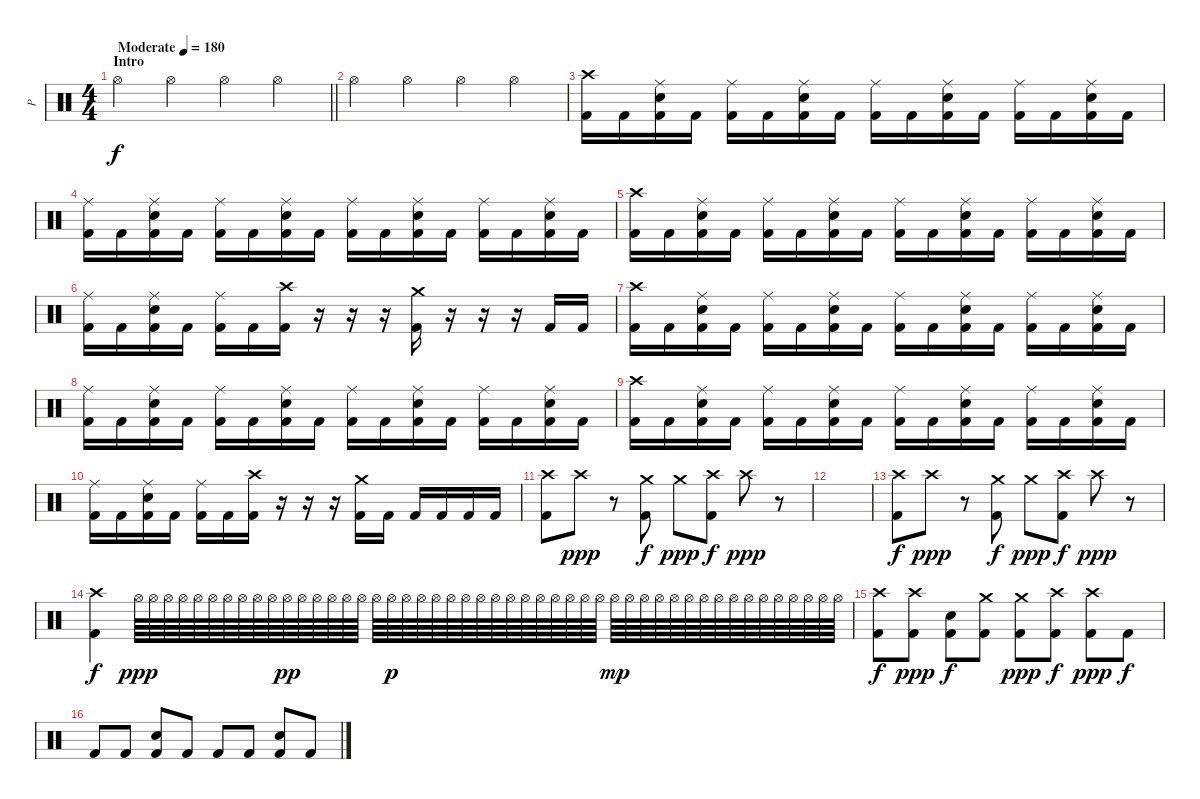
\track ("P" "P") {instrument percussion}
\staff {score}
\articulation defaults
\ts (4 4)
\section ("" "Intro")
\tempo (180 "Moderate")
\clef neutral
\barLineRight lightlight
\ks c "Hi-Hat (open)".4{dy f} "Hi-Hat (open)".4 "Hi-Hat (open)".4 "Hi-Hat (open)".4
|
"Hi-Hat (open)".4 "Hi-Hat (open)".4 "Hi-Hat (open)".4 "Hi-Hat (open)".4 |
("Crash high (hit)" "Kick (hit) 2").16 "Kick (hit) 2".16 ("Ride (middle)" "Electric Snare (hit)" "Kick (hit) 2").16 "Kick (hit) 2".16 ("Ride (middle)" "Kick (hit) 2").16 "Kick (hit) 2".16 ("Ride (middle)" "Electric Snare (hit)" "Kick (hit) 2").16 "Kick (hit) 2".16 ("Ride (middle)" "Kick (hit) 2").16 "Kick (hit) 2".16 ("Ride (middle)" "Electric Snare (hit)" "Kick (hit) 2").16 "Kick (hit) 2".16 ("Ride (middle)" "Kick (hit) 2").16 "Kick (hit) 2".16 ("Ride (middle)" "Electric Snare (hit)" "Kick (hit) 2").16 "Kick (hit) 2".16 |
("Ride (middle)" "Kick (hit) 2").16 "Kick (hit) 2".16 ("Ride (middle)" "Electric Snare (hit)" "Kick (hit) 2").16 "Kick (hit) 2".16 ("Ride (middle)" "Kick (hit) 2").16 "Kick (hit) 2".16 ("Ride (middle)" "Electric Snare (hit)" "Kick (hit) 2").16 "Kick (hit) 2".16 ("Ride (middle)" "Kick (hit) 2").16 "Kick (hit) 2".16 ("Ride (middle)" "Electric Snare (hit)" "Kick (hit) 2").16 "Kick (hit) 2".16 ("Ride (middle)" "Kick (hit) 2").16 "Kick (hit) 2".16 ("Ride (middle)" "Electric Snare (hit)" "Kick (hit) 2").16 "Kick (hit) 2".16 |
("Crash high (hit)" "Kick (hit) 2").16 "Kick (hit) 2".16 ("Ride (middle)" "Electric Snare (hit)" "Kick (hit) 2").16 "Kick (hit) 2".16 ("Ride (middle)" "Kick (hit) 2").16 "Kick (hit) 2".16 ("Ride (middle)" "Electric Snare (hit)" "Kick (hit) 2").16 "Kick (hit) 2".16 ("Ride (middle)" "Kick (hit) 2").16 "Kick (hit) 2".16 ("Ride (middle)" "Electric Snare (hit)" "Kick (hit) 2").16 "Kick (hit) 2".16 ("Ride (middle)" "Kick (hit) 2").16 "Kick (hit) 2".16 ("Ride (middle)" "Electric Snare (hit)" "Kick (hit) 2").16 "Kick (hit) 2".16 |
("Ride (middle)" "Kick (hit) 2").16 "Kick (hit) 2".16 ("Ride (middle)" "Electric Snare (hit)" "Kick (hit) 2").16 "Kick (hit) 2".16 ("Ride (middle)" "Kick (hit) 2").16 "Kick (hit) 2".16 ("Crash high (hit)" "Kick (hit) 2").16 r.16 r.16 r.16 ("Crash medium (hit)" "Kick (hit) 2").16 r.16 r.16 r.16 "Kick (hit) 2".16 "Kick (hit) 2".16 |
("Crash high (hit)" "Kick (hit) 2").16 "Kick (hit) 2".16 ("Ride (middle)" "Electric Snare (hit)" "Kick (hit) 2").16 "Kick (hit) 2".16 ("Ride (middle)" "Kick (hit) 2").16 "Kick (hit) 2".16 ("Ride (middle)" "Electric Snare (hit)" "Kick (hit) 2").16 "Kick (hit) 2".16 ("Ride (middle)" "Kick (hit) 2").16 "Kick (hit) 2".16 ("Ride (middle)" "Electric Snare (hit)" "Kick (hit) 2").16 "Kick (hit) 2".16 ("Ride (middle)" "Kick (hit) 2").16 "Kick (hit) 2".16 ("Ride (middle)" "Electric Snare (hit)" "Kick (hit) 2").16 "Kick (hit) 2".16 |
("Ride (middle)" "Kick (hit) 2").16 "Kick (hit) 2".16 ("Ride (middle)" "Electric Snare (hit)" "Kick (hit) 2").16 "Kick (hit) 2".16 ("Ride (middle)" "Kick (hit) 2").16 "Kick (hit) 2".16 ("Ride (middle)" "Electric Snare (hit)" "Kick (hit) 2").16 "Kick (hit) 2".16 ("Ride (middle)" "Kick (hit) 2").16 "Kick (hit) 2".16 ("Ride (middle)" "Electric Snare (hit)" "Kick (hit) 2").16 "Kick (hit) 2".16 ("Ride (middle)" "Kick (hit) 2").16 "Kick (hit) 2".16 ("Ride (middle)" "Electric Snare (hit)" "Kick (hit) 2").16 "Kick (hit) 2".16 |
("Crash high (hit)" "Kick (hit) 2").16 "Kick (hit) 2".16 ("Ride (middle)" "Electric Snare (hit)" "Kick (hit) 2").16 "Kick (hit) 2".16 ("Ride (middle)" "Kick (hit) 2").16 "Kick (hit) 2".16 ("Ride (middle)" "Electric Snare (hit)" "Kick (hit) 2").16 "Kick (hit) 2".16 ("Ride (middle)" "Kick (hit) 2").16 "Kick (hit) 2".16 ("Ride (middle)" "Electric Snare (hit)" "Kick (hit) 2").16 "Kick (hit) 2".16 ("Ride (middle)" "Kick (hit) 2").16 "Kick (hit) 2".16 ("Ride (middle)" "Electric Snare (hit)" "Kick (hit) 2").16 "Kick (hit) 2".16 |
("Ride (middle)" "Kick (hit) 2").16 "Kick (hit) 2".16 ("Ride (middle)" "Electric Snare (hit)" "Kick (hit) 2").16 "Kick (hit) 2".16 ("Ride (middle)" "Kick (hit) 2").16 "Kick (hit) 2".16 ("Crash high (hit)" "Kick (hit) 2").16 r.16 r.16 r.16 ("Crash medium (hit)" "Kick (hit) 2").16 "Kick (hit) 2".16 "Kick (hit) 2".16 "Kick (hit) 2".16 "Kick (hit) 2".16 "Kick (hit) 2".16 |
("Crash high (hit)" "Kick (hit) 2").8 "Crash high (hit)".8{dy ppp} r.8 ("Crash medium (hit)" "Kick (hit) 2").8{dy f} "Crash medium (hit)".8{dy ppp} ("Crash high (hit)" "Kick (hit) 2").8{dy f} "Crash high (hit)".8{dy ppp} r.8 |
|
("Crash high (hit)" "Kick (hit) 2").8{dy f} "Crash high (hit)".8{dy ppp} r.8 ("Crash medium (hit)" "Kick (hit) 2").8{dy f} "Crash medium (hit)".8{dy ppp} ("Crash high (hit)" "Kick (hit) 2").8{dy f} "Crash high (hit)".8{dy ppp} r.8 |
("Crash high (hit)" "Kick (hit) 2").4{dy f} "Hi-Hat (open)".64{dy ppp} "Hi-Hat (open)".64 "Hi-Hat (open)".64 "Hi-Hat (open)".64 "Hi-Hat (open)".64 "Hi-Hat (open)".64 "Hi-Hat (open)".64 "Hi-Hat (open)".64 "Hi-Hat (open)".64 "Hi-Hat (open)".64 "Hi-Hat (open)".64{dy pp} "Hi-Hat (open)".64 "Hi-Hat (open)".64 "Hi-Hat (open)".64 "Hi-Hat (open)".64 "Hi-Hat (open)".64 "Hi-Hat (open)".64 "Hi-Hat (open)".64{dy p} "Hi-Hat (open)".64 "Hi-Hat (open)".64 "Hi-Hat (open)".64 "Hi-Hat (open)".64 "Hi-Hat (open)".64 "Hi-Hat (open)".64 "Hi-Hat (open)".64 "Hi-Hat (open)".64 "Hi-Hat (open)".64 "Hi-Hat (open)".64 "Hi-Hat (open)".64 "Hi-Hat (open)".64 "Hi-Hat (open)".64 "Hi-Hat (open)".64 "Hi-Hat (open)".64{dy mp} "Hi-Hat (open)".64 "Hi-Hat (open)".64 "Hi-Hat (open)".64 "Hi-Hat (open)".64 "Hi-Hat (open)".64 "Hi-Hat (open)".64 "Hi-Hat (open)".64 "Hi-Hat (open)".64 "Hi-Hat (open)".64 "Hi-Hat (open)".64 "Hi-Hat (open)".64 "Hi-Hat (open)".64 "Hi-Hat (open)".64 "Hi-Hat (open)".64 "Hi-Hat (open)".64 |
("Crash high (hit)" "Kick (hit) 2").8{dy f} ("Crash high (hit)" "Kick (hit) 2").8{dy ppp} ("Electric Snare (hit)" "Kick (hit) 2").8{dy f} ("Crash medium (hit)" "Kick (hit) 2").8 ("Crash medium (hit)" "Kick (hit) 2").8{dy ppp} ("Crash high (hit)" "Kick (hit) 2").8{dy f} ("Crash high (hit)" "Kick (hit) 2").8{dy ppp} "Kick (hit) 2".8{dy f} |
"Kick (hit) 2".8 "Kick (hit) 2".8 ("Electric Snare (hit)" "Kick (hit) 2").8 "Kick (hit) 2".8 "Kick (hit) 2".8 "Kick (hit) 2".8 ("Electric Snare (hit)" "Kick (hit) 2").8 "Kick (hit) 2".8
